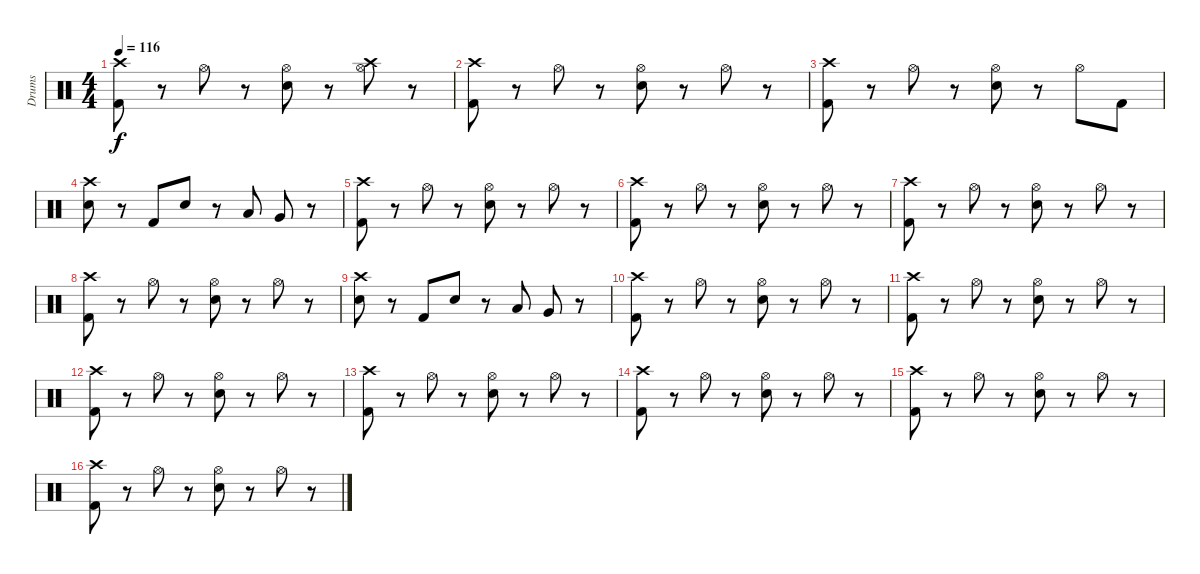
\track ("Drums" "Drums") {instrument percussion}
\staff {score}
\articulation defaults
\ts (4 4)
\tempo 116
\clef neutral
\ks c
("Crash high (hit)" "Kick (hit) 2").8{dy f} r.8 "Hi-Hat (open)".8 r.8 ("Snare (hit) 2" "Hi-Hat (open)").8 r.8 ("Hi-Hat (open)" "Crash high (hit)").8 r.8 |
("Crash high (hit)" "Kick (hit) 2").8 r.8 "Hi-Hat (open)".8 r.8 ("Snare (hit) 2" "Hi-Hat (open)").8 r.8 "Hi-Hat (open)".8 r.8 |
("Crash high (hit)" "Kick (hit) 2").8 r.8 "Hi-Hat (open)".8 r.8 ("Snare (hit) 2" "Hi-Hat (open)").8 r.8 "Hi-Hat (open)".8 "Kick (hit) 2".8 |
("Snare (hit) 2" "Crash high (hit)").8 r.8 "Kick (hit) 2".8 "Snare (hit) 2".8 r.8 "Low Tom (hit)".8 "Very Low Tom (hit)".8 r.8 |
("Crash high (hit)" "Kick (hit) 2").8 r.8 "Hi-Hat (open)".8 r.8 ("Snare (hit) 2" "Hi-Hat (open)").8 r.8 "Hi-Hat (open)".8 r.8 |
("Crash high (hit)" "Kick (hit) 2").8 r.8 "Hi-Hat (open)".8 r.8 ("Snare (hit) 2" "Hi-Hat (open)").8 r.8 "Hi-Hat (open)".8 r.8 |
("Crash high (hit)" "Kick (hit) 2").8 r.8 "Hi-Hat (open)".8 r.8 ("Snare (hit) 2" "Hi-Hat (open)").8 r.8 "Hi-Hat (open)".8 r.8 |
("Crash high (hit)" "Kick (hit) 2").8 r.8 "Hi-Hat (open)".8 r.8 ("Snare (hit) 2" "Hi-Hat (open)").8 r.8 "Hi-Hat (open)".8 r.8 |
("Snare (hit) 2" "Crash high (hit)").8 r.8 "Kick (hit) 2".8 "Snare (hit) 2".8 r.8 "Low Tom (hit)".8 "Very Low Tom (hit)".8 r.8 |
("Crash high (hit)" "Kick (hit) 2").8 r.8 "Hi-Hat (open)".8 r.8 ("Snare (hit) 2" "Hi-Hat (open)").8 r.8 "Hi-Hat (open)".8 r.8 |
("Crash high (hit)" "Kick (hit) 2").8 r.8 "Hi-Hat (open)".8 r.8 ("Snare (hit) 2" "Hi-Hat (open)").8 r.8 "Hi-Hat (open)".8 r.8 |
("Crash high (hit)" "Kick (hit) 2").8 r.8 "Hi-Hat (open)".8 r.8 ("Snare (hit) 2" "Hi-Hat (open)").8 r.8 "Hi-Hat (open)".8 r.8 |
("Crash high (hit)" "Kick (hit) 2").8 r.8 "Hi-Hat (open)".8 r.8 ("Snare (hit) 2" "Hi-Hat (open)").8 r.8 "Hi-Hat (open)".8 r.8 |
("Crash high (hit)" "Kick (hit) 2").8 r.8 "Hi-Hat (open)".8 r.8 ("Snare (hit) 2" "Hi-Hat (open)").8 r.8 "Hi-Hat (open)".8 r.8 |
("Crash high (hit)" "Kick (hit) 2").8 r.8 "Hi-Hat (open)".8 r.8 ("Snare (hit) 2" "Hi-Hat (open)").8 r.8 "Hi-Hat (open)".8 r.8 |
("Crash high (hit)" "Kick (hit) 2").8 r.8 "Hi-Hat (open)".8 r.8 ("Snare (hit) 2" "Hi-Hat (open)").8 r.8 "Hi-Hat (open)".8 r.8
